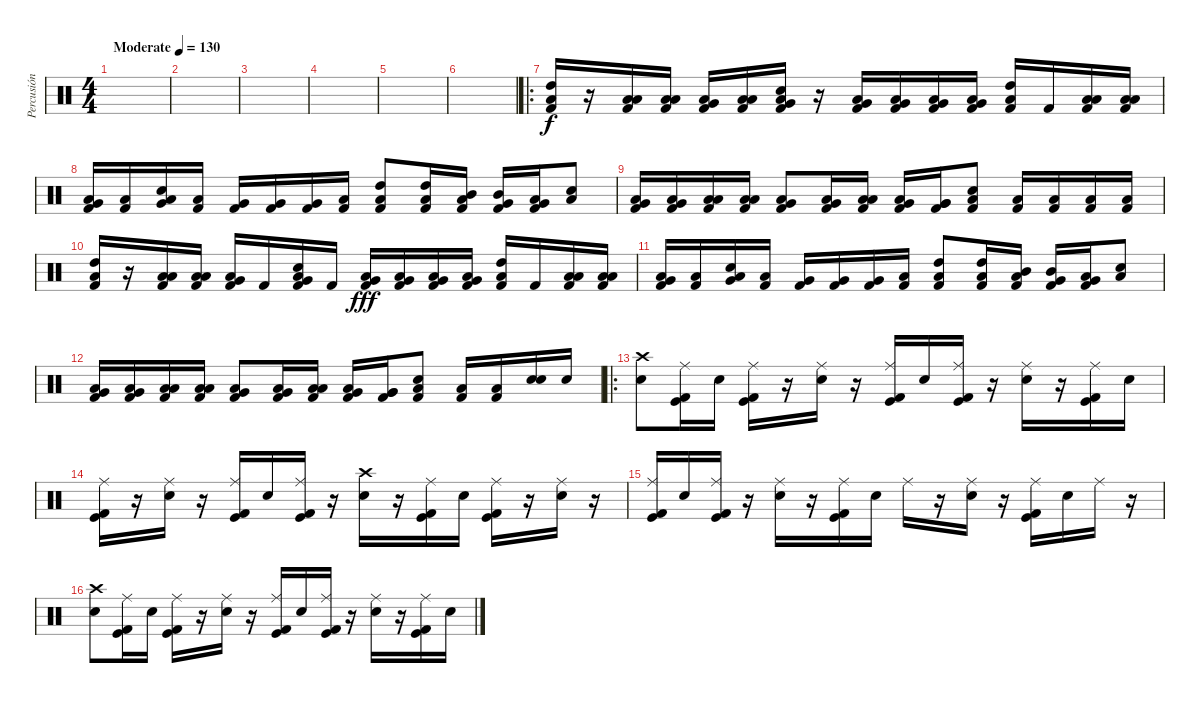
\track ("Percusión" "Percusión") {instrument percussion}
\staff {score}
\articulation defaults
\ts (4 4)
\tempo (130 "Moderate")
\clef neutral
\ks c
|
|
|
|
|
|
\ro
("High Tom (hit)" "Low Floor Tom (hit)" "Kick (hit) 2").16 r.16 ("Low Tom (hit)" "Low Floor Tom (hit)" "Kick (hit) 2").16 ("Low Tom (hit)" "Low Floor Tom (hit)" "Kick (hit) 2").16 ("Very Low Tom (hit)" "Low Floor Tom (hit)" "Kick (hit) 2").16 ("Low Tom (hit)" "Low Floor Tom (hit)" "Kick (hit) 2").16 ("Low Floor Tom (hit)" "Very Low Tom (hit)" "Electric Snare (hit)" "Kick (hit) 2").16 r.16 ("Very Low Tom (hit)" "Low Tom (hit)" "Kick (hit) 2").16 ("Very Low Tom (hit)" "Low Tom (hit)" "Kick (hit) 2").16 ("Low Floor Tom (hit)" "Very Low Tom (hit)" "Kick (hit) 2").16 ("Low Floor Tom (hit)" "Very Low Tom (hit)" "Kick (hit) 2").16 ("High Tom (hit)" "Low Floor Tom (hit)" "Kick (hit) 2").16 "Kick (hit) 2".16 ("Low Tom (hit)" "Low Floor Tom (hit)" "Kick (hit) 2").16 ("Low Tom (hit)" "Low Floor Tom (hit)" "Kick (hit) 2").16 |
("Very Low Tom (hit)" "Low Floor Tom (hit)" "Kick (hit) 2").16 ("Low Floor Tom (hit)" "Kick (hit) 2").16 ("Low Floor Tom (hit)" "Very Low Tom (hit)" "Electric Snare (hit)").16 ("Low Floor Tom (hit)" "Kick (hit) 2").16 ("Very Low Tom (hit)" "Kick (hit) 2").16 ("Very Low Tom (hit)" "Kick (hit) 2").16 ("Very Low Tom (hit)" "Kick (hit) 2").16 ("Low Floor Tom (hit)" "Kick (hit) 2").16 ("High Tom (hit)" "Low Floor Tom (hit)" "Kick (hit) 2").8 ("High Tom (hit)" "Low Floor Tom (hit)" "Kick (hit) 2").16 ("Mid Tom (hit)" "Low Floor Tom (hit)" "Kick (hit) 2").16 ("Mid Tom (hit)" "Very Low Tom (hit)" "Kick (hit) 2").16 ("Low Tom (hit)" "Very Low Tom (hit)" "Kick (hit) 2").16 ("Low Floor Tom (hit)" "Electric Snare (hit)").8 |
("Low Floor Tom (hit)" "Very Low Tom (hit)" "Kick (hit) 2").16 ("Low Floor Tom (hit)" "Very Low Tom (hit)" "Kick (hit) 2").16 ("Low Floor Tom (hit)" "Low Tom (hit)" "Kick (hit) 2").16 ("Low Floor Tom (hit)" "Low Tom (hit)" "Kick (hit) 2").16 ("Low Floor Tom (hit)" "Very Low Tom (hit)" "Kick (hit) 2").8 ("Low Floor Tom (hit)" "Very Low Tom (hit)" "Kick (hit) 2").16 ("Low Floor Tom (hit)" "Low Floor Tom (hit)" "Kick (hit) 2").16 ("Low Floor Tom (hit)" "Very Low Tom (hit)" "Kick (hit) 2").16 ("Very Low Tom (hit)" "Very Low Tom (hit)" "Kick (hit) 2").16 ("Low Floor Tom (hit)" "Electric Snare (hit)" "Kick (hit) 2").8 ("Low Tom (hit)" "Kick (hit) 2").16 ("Low Tom (hit)" "Kick (hit) 2").16 ("Low Floor Tom (hit)" "Kick (hit) 2").16 ("Low Floor Tom (hit)" "Kick (hit) 2").16 |
("High Tom (hit)" "Low Floor Tom (hit)" "Kick (hit) 2").16 r.16 ("Low Tom (hit)" "Low Floor Tom (hit)" "Kick (hit) 2").16 ("Low Tom (hit)" "Low Floor Tom (hit)" "Kick (hit) 2").16 ("Very Low Tom (hit)" "Low Floor Tom (hit)" "Kick (hit) 2").16 "Kick (hit) 2".16 ("Low Floor Tom (hit)" "Very Low Tom (hit)" "Electric Snare (hit)" "Kick (hit) 2").16 "Kick (hit) 2".16{dy f} ("Very Low Tom (hit)" "Low Tom (hit)" "Kick (hit) 2").16{dy fff} ("Very Low Tom (hit)" "Low Tom (hit)" "Kick (hit) 2").16 ("Low Floor Tom (hit)" "Very Low Tom (hit)" "Kick (hit) 2").16 ("Low Floor Tom (hit)" "Very Low Tom (hit)" "Kick (hit) 2").16 ("High Tom (hit)" "Low Floor Tom (hit)" "Kick (hit) 2").16 "Kick (hit) 2".16 ("Low Tom (hit)" "Low Floor Tom (hit)" "Kick (hit) 2").16 ("Low Tom (hit)" "Low Floor Tom (hit)" "Kick (hit) 2").16 |
("Very Low Tom (hit)" "Low Floor Tom (hit)" "Kick (hit) 2").16 ("Low Floor Tom (hit)" "Kick (hit) 2").16 ("Low Floor Tom (hit)" "Very Low Tom (hit)" "Electric Snare (hit)").16 ("Low Floor Tom (hit)" "Kick (hit) 2").16 ("Very Low Tom (hit)" "Kick (hit) 2").16 ("Very Low Tom (hit)" "Kick (hit) 2").16 ("Very Low Tom (hit)" "Kick (hit) 2").16 ("Low Floor Tom (hit)" "Kick (hit) 2").16 ("High Tom (hit)" "Low Floor Tom (hit)" "Kick (hit) 2").8 ("High Tom (hit)" "Low Floor Tom (hit)" "Kick (hit) 2").16 ("Mid Tom (hit)" "Low Floor Tom (hit)" "Kick (hit) 2").16 ("Mid Tom (hit)" "Very Low Tom (hit)" "Kick (hit) 2").16 ("Low Tom (hit)" "Very Low Tom (hit)" "Kick (hit) 2").16 ("Low Floor Tom (hit)" "Electric Snare (hit)").8 |
("Low Floor Tom (hit)" "Very Low Tom (hit)" "Kick (hit) 2").16 ("Low Floor Tom (hit)" "Very Low Tom (hit)" "Kick (hit) 2").16 ("Low Floor Tom (hit)" "Low Tom (hit)" "Kick (hit) 2").16 ("Low Floor Tom (hit)" "Low Tom (hit)" "Kick (hit) 2").16 ("Low Floor Tom (hit)" "Very Low Tom (hit)" "Kick (hit) 2").8 ("Low Floor Tom (hit)" "Very Low Tom (hit)" "Kick (hit) 2").16 ("Low Floor Tom (hit)" "Low Floor Tom (hit)" "Kick (hit) 2").16 ("Low Floor Tom (hit)" "Very Low Tom (hit)" "Kick (hit) 2").16 ("Very Low Tom (hit)" "Very Low Tom (hit)" "Kick (hit) 2").16 ("Low Floor Tom (hit)" "Electric Snare (hit)" "Kick (hit) 2").8 ("Low Tom (hit)" "Kick (hit) 2").16 ("Low Tom (hit)" "Kick (hit) 2").16 ("Snare (hit) 2" "Electric Snare (hit)").16 "Snare (hit) 2".16 |
\ro
("Crash high (hit)" "Snare (hit) 2").8 ("Ride (middle)" "Kick (hit)" "Kick (hit) 2").16 "Snare (hit) 2".16 ("Ride (middle)" "Kick (hit)" "Kick (hit) 2").16 r.16 ("Ride (middle)" "Snare (hit) 2").16 r.16 ("Ride (middle)" "Kick (hit)" "Kick (hit) 2").16 "Snare (hit) 2".16 ("Ride (middle)" "Kick (hit) 2" "Kick (hit)").16 r.16 ("Ride (middle)" "Snare (hit) 2").16 r.16 ("Ride (middle)" "Kick (hit)" "Kick (hit) 2").16 "Snare (hit) 2".16 |
("Ride (middle)" "Kick (hit) 2" "Kick (hit)").16 r.16 ("Ride (middle)" "Snare (hit) 2").16 r.16 ("Ride (middle)" "Kick (hit) 2" "Kick (hit)").16 "Snare (hit) 2".16 ("Ride (middle)" "Kick (hit)" "Kick (hit) 2").16 r.16 ("Crash high (hit)" "Snare (hit) 2").16 r.16 ("Ride (middle)" "Kick (hit)" "Kick (hit) 2").16 "Snare (hit) 2".16 ("Ride (middle)" "Kick (hit) 2" "Kick (hit)").16 r.16 ("Ride (middle)" "Snare (hit) 2").16 r.16 |
("Ride (middle)" "Kick (hit) 2" "Kick (hit)").16 "Snare (hit) 2".16 ("Ride (middle)" "Kick (hit) 2" "Kick (hit)").16 r.16 ("Ride (middle)" "Snare (hit) 2").16 r.16 ("Ride (middle)" "Kick (hit)" "Kick (hit) 2").16 "Snare (hit) 2".16 "Ride (middle)".16 r.16 ("Ride (middle)" "Snare (hit) 2").16 r.16 ("Ride (middle)" "Kick (hit)" "Kick (hit) 2").16 "Snare (hit) 2".16 "Ride (middle)".16 r.16 |
("Crash high (hit)" "Snare (hit) 2").8 ("Ride (middle)" "Kick (hit)" "Kick (hit) 2").16 "Snare (hit) 2".16 ("Ride (middle)" "Kick (hit)" "Kick (hit) 2").16 r.16 ("Ride (middle)" "Snare (hit) 2").16 r.16 ("Ride (middle)" "Kick (hit)" "Kick (hit) 2").16 "Snare (hit) 2".16 ("Ride (middle)" "Kick (hit) 2" "Kick (hit)").16 r.16 ("Ride (middle)" "Snare (hit) 2").16 r.16 ("Ride (middle)" "Kick (hit)" "Kick (hit) 2").16 "Snare (hit) 2".16
